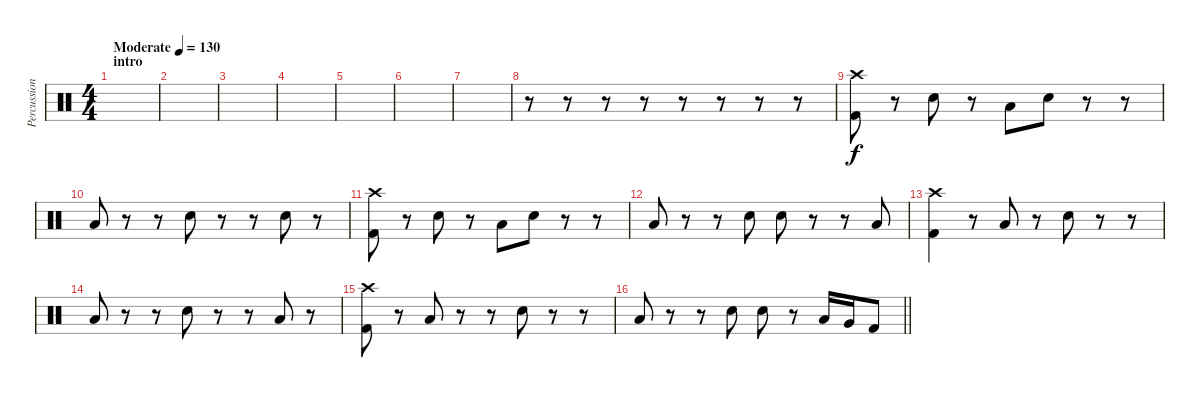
\track ("Percussion" "Percussion") {instrument percussion}
\staff {score}
\articulation defaults
\ts (4 4)
\section ("" "intro")
\tempo (130 "Moderate")
\clef neutral
\ks c
|
|
|
|
|
|
|
r.8 r.8 r.8 r.8 r.8 r.8 r.8 r.8 |
("Crash high (hit)" "Kick (hit) 2").8 r.8 "Snare (hit) 2".8 r.8 "Low Tom (hit)".8 "Snare (hit) 2".8 r.8 r.8 |
"Low Tom (hit)".8 r.8 r.8 "Snare (hit) 2".8 r.8 r.8 "Snare (hit) 2".8 r.8 |
("Crash high (hit)" "Kick (hit) 2").8 r.8 "Snare (hit) 2".8 r.8 "Low Tom (hit)".8 "Snare (hit) 2".8 r.8 r.8 |
"Low Tom (hit)".8 r.8 r.8 "Snare (hit) 2".8 "Snare (hit) 2".8 r.8 r.8 "Low Tom (hit)".8 |
("Crash high (hit)" "Kick (hit) 2").4 r.8 "Low Tom (hit)".8 r.8 "Snare (hit) 2".8 r.8 r.8 |
"Low Tom (hit)".8 r.8 r.8 "Snare (hit) 2".8 r.8 r.8 "Low Tom (hit)".8 r.8 |
("Crash high (hit)" "Kick (hit) 2").8 r.8 "Low Tom (hit)".8 r.8 r.8 "Snare (hit) 2".8 r.8 r.8 |
\barLineRight lightlight "Low Tom (hit)".8
r.8 r.8 "Snare (hit) 2".8 "Snare (hit) 2".8 r.8 "Low Tom (hit)".16 "Very Low Tom (hit)".16 "Kick (hit) 2".8
